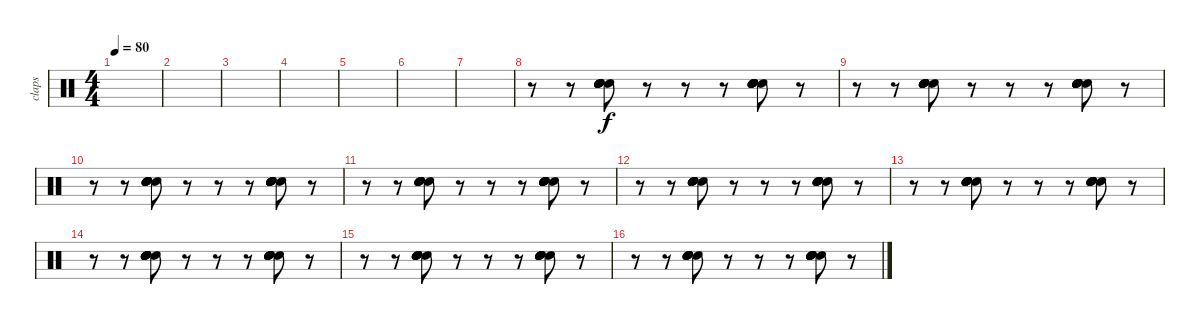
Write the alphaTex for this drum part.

\track ("claps" "claps") {instrument percussion}
\staff {score}
\articulation defaults
\ts (4 4)
\tempo 80
\clef neutral
\ks c
|
|
|
|
|
|
|
r.8{volume 16} r.8 ("Hand Clap (hit)" "Hand Clap (hit)" "Hand Clap (hit)" "Hand Clap (hit)" "Hand Clap (hit)" "Hand Clap (hit)").8{bd 30} r.8 r.8 r.8 ("Hand Clap (hit)" "Hand Clap (hit)" "Hand Clap (hit)" "Hand Clap (hit)" "Hand Clap (hit)" "Hand Clap (hit)").8{bd 30} r.8 |
r.8 r.8 ("Hand Clap (hit)" "Hand Clap (hit)" "Hand Clap (hit)" "Hand Clap (hit)" "Hand Clap (hit)" "Hand Clap (hit)").8{bd 30} r.8 r.8 r.8 ("Hand Clap (hit)" "Hand Clap (hit)" "Hand Clap (hit)" "Hand Clap (hit)" "Hand Clap (hit)" "Hand Clap (hit)").8{bd 30} r.8 |
r.8 r.8 ("Hand Clap (hit)" "Hand Clap (hit)" "Hand Clap (hit)" "Hand Clap (hit)" "Hand Clap (hit)" "Hand Clap (hit)").8{bd 30} r.8 r.8 r.8 ("Hand Clap (hit)" "Hand Clap (hit)" "Hand Clap (hit)" "Hand Clap (hit)" "Hand Clap (hit)" "Hand Clap (hit)").8{bd 30} r.8 |
r.8 r.8 ("Hand Clap (hit)" "Hand Clap (hit)" "Hand Clap (hit)" "Hand Clap (hit)" "Hand Clap (hit)" "Hand Clap (hit)").8{bd 30} r.8 r.8 r.8 ("Hand Clap (hit)" "Hand Clap (hit)" "Hand Clap (hit)" "Hand Clap (hit)" "Hand Clap (hit)" "Hand Clap (hit)").8{bd 30} r.8 |
r.8 r.8 ("Hand Clap (hit)" "Hand Clap (hit)" "Hand Clap (hit)" "Hand Clap (hit)" "Hand Clap (hit)" "Hand Clap (hit)").8{bd 30} r.8 r.8 r.8 ("Hand Clap (hit)" "Hand Clap (hit)" "Hand Clap (hit)" "Hand Clap (hit)" "Hand Clap (hit)" "Hand Clap (hit)").8{bd 30} r.8 |
r.8 r.8 ("Hand Clap (hit)" "Hand Clap (hit)" "Hand Clap (hit)" "Hand Clap (hit)" "Hand Clap (hit)" "Hand Clap (hit)").8{bd 30} r.8 r.8 r.8 ("Hand Clap (hit)" "Hand Clap (hit)" "Hand Clap (hit)" "Hand Clap (hit)" "Hand Clap (hit)" "Hand Clap (hit)").8{bd 30} r.8 |
r.8 r.8 ("Hand Clap (hit)" "Hand Clap (hit)" "Hand Clap (hit)" "Hand Clap (hit)" "Hand Clap (hit)" "Hand Clap (hit)").8{bd 30} r.8 r.8 r.8 ("Hand Clap (hit)" "Hand Clap (hit)" "Hand Clap (hit)" "Hand Clap (hit)" "Hand Clap (hit)" "Hand Clap (hit)").8{bd 30} r.8 |
r.8 r.8 ("Hand Clap (hit)" "Hand Clap (hit)" "Hand Clap (hit)" "Hand Clap (hit)" "Hand Clap (hit)" "Hand Clap (hit)").8{bd 30} r.8 r.8 r.8 ("Hand Clap (hit)" "Hand Clap (hit)" "Hand Clap (hit)" "Hand Clap (hit)" "Hand Clap (hit)" "Hand Clap (hit)").8{bd 30} r.8 |
r.8 r.8 ("Hand Clap (hit)" "Hand Clap (hit)" "Hand Clap (hit)" "Hand Clap (hit)" "Hand Clap (hit)" "Hand Clap (hit)").8{bd 30} r.8 r.8 r.8 ("Hand Clap (hit)" "Hand Clap (hit)" "Hand Clap (hit)" "Hand Clap (hit)" "Hand Clap (hit)" "Hand Clap (hit)").8{bd 30} r.8
